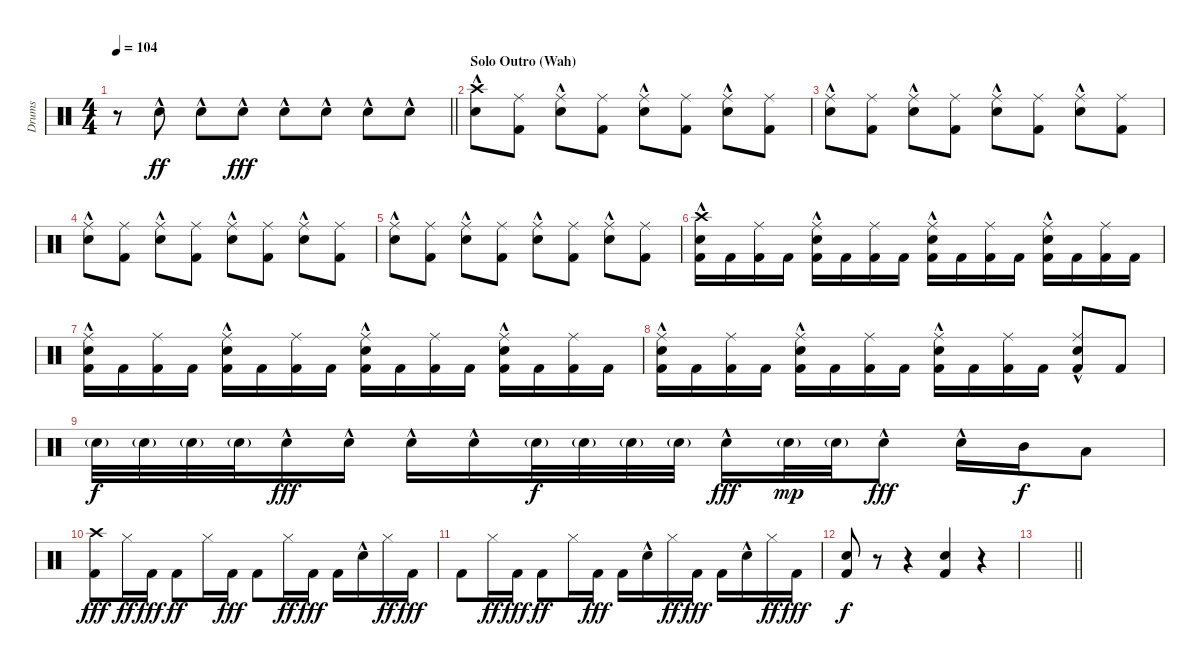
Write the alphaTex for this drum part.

\track ("Drums" "Drums") {instrument percussion}
\staff {score}
\articulation defaults
\ts (4 4)
\tempo 104
\clef neutral
\barLineRight lightlight
\ks c
r.8{dy fff} "Electric Snare (hit)"{hac}.8{dy ff} "Electric Snare (hit)"{hac}.8 "Electric Snare (hit)"{hac}.8{dy fff} "Electric Snare (hit)"{hac}.8 "Electric Snare (hit)"{hac}.8 "Electric Snare (hit)"{hac}.8 "Electric Snare (hit)"{hac}.8 |
\section ("" "Solo Outro (Wah)")
("Crash high (hit)" "Electric Snare (hit)"{hac}).8 ("Ride (middle)" "Kick (hit) 2").8 ("Ride (middle)" "Electric Snare (hit)"{hac}).8 ("Ride (middle)" "Kick (hit) 2").8 ("Ride (middle)" "Electric Snare (hit)"{hac}).8 ("Ride (middle)" "Kick (hit) 2").8 ("Ride (middle)" "Electric Snare (hit)"{hac}).8 ("Ride (middle)" "Kick (hit) 2").8 |
("Ride (middle)" "Electric Snare (hit)"{hac}).8 ("Ride (middle)" "Kick (hit) 2").8 ("Ride (middle)" "Electric Snare (hit)"{hac}).8 ("Ride (middle)" "Kick (hit) 2").8 ("Ride (middle)" "Electric Snare (hit)"{hac}).8 ("Ride (middle)" "Kick (hit) 2").8 ("Ride (middle)" "Electric Snare (hit)"{hac}).8 ("Ride (middle)" "Kick (hit) 2").8 |
("Ride (middle)" "Electric Snare (hit)"{hac}).8 ("Ride (middle)" "Kick (hit) 2").8 ("Ride (middle)" "Electric Snare (hit)"{hac}).8 ("Ride (middle)" "Kick (hit) 2").8 ("Ride (middle)" "Electric Snare (hit)"{hac}).8 ("Ride (middle)" "Kick (hit) 2").8 ("Ride (middle)" "Electric Snare (hit)"{hac}).8 ("Ride (middle)" "Kick (hit) 2").8 |
("Ride (middle)" "Electric Snare (hit)"{hac}).8 ("Ride (middle)" "Kick (hit) 2").8 ("Ride (middle)" "Electric Snare (hit)"{hac}).8 ("Ride (middle)" "Kick (hit) 2").8 ("Ride (middle)" "Electric Snare (hit)"{hac}).8 ("Ride (middle)" "Kick (hit) 2").8 ("Ride (middle)" "Electric Snare (hit)"{hac}).8 ("Ride (middle)" "Kick (hit) 2").8 |
("Crash high (hit)" "Electric Snare (hit)"{hac} "Kick (hit) 2").16 "Kick (hit) 2".16 ("Ride (middle)" "Kick (hit) 2").16 "Kick (hit) 2".16 ("Ride (middle)" "Electric Snare (hit)"{hac} "Kick (hit) 2").16 "Kick (hit) 2".16 ("Ride (middle)" "Kick (hit) 2").16 "Kick (hit) 2".16 ("Ride (middle)" "Electric Snare (hit)"{hac} "Kick (hit) 2").16 "Kick (hit) 2".16 ("Ride (middle)" "Kick (hit) 2").16 "Kick (hit) 2".16 ("Ride (middle)" "Electric Snare (hit)"{hac} "Kick (hit) 2").16 "Kick (hit) 2".16 ("Ride (middle)" "Kick (hit) 2").16 "Kick (hit) 2".16 |
("Ride (middle)" "Electric Snare (hit)"{hac} "Kick (hit) 2").16 "Kick (hit) 2".16 ("Ride (middle)" "Kick (hit) 2").16 "Kick (hit) 2".16 ("Ride (middle)" "Electric Snare (hit)"{hac} "Kick (hit) 2").16 "Kick (hit) 2".16 ("Ride (middle)" "Kick (hit) 2").16 "Kick (hit) 2".16 ("Ride (middle)" "Electric Snare (hit)"{hac} "Kick (hit) 2").16 "Kick (hit) 2".16 ("Ride (middle)" "Kick (hit) 2").16 "Kick (hit) 2".16 ("Ride (middle)" "Electric Snare (hit)"{hac} "Kick (hit) 2").16 "Kick (hit) 2".16 ("Ride (middle)" "Kick (hit) 2").16 "Kick (hit) 2".16 |
("Ride (middle)" "Electric Snare (hit)"{hac} "Kick (hit) 2").16 "Kick (hit) 2".16 ("Ride (middle)" "Kick (hit) 2").16 "Kick (hit) 2".16 ("Ride (middle)" "Electric Snare (hit)"{hac} "Kick (hit) 2").16 "Kick (hit) 2".16 ("Ride (middle)" "Kick (hit) 2").16 "Kick (hit) 2".16 ("Ride (middle)" "Electric Snare (hit)"{hac} "Kick (hit) 2").16 "Kick (hit) 2".16 ("Ride (middle)" "Kick (hit) 2").16 "Kick (hit) 2".16 ("Ride (middle)" "Electric Snare (hit)"{hac} "Kick (hit) 2").8 "Kick (hit) 2".8 |
"Electric Snare (hit)"{g}.32{dy f} "Electric Snare (hit)"{g}.32 "Electric Snare (hit)"{g}.32 "Electric Snare (hit)"{g}.32 "Electric Snare (hit)"{hac}.16{dy fff} "Electric Snare (hit)"{hac}.16 "Electric Snare (hit)"{hac}.16 "Electric Snare (hit)"{hac}.16 "Electric Snare (hit)"{g}.32{dy f} "Electric Snare (hit)"{g}.32 "Electric Snare (hit)"{g}.32 "Electric Snare (hit)"{g}.32 "Electric Snare (hit)"{hac}.16{dy fff} "Electric Snare (hit)"{g}.32{dy mp} "Electric Snare (hit)"{g}.32 "Electric Snare (hit)"{hac}.8{dy fff} "Electric Snare (hit)"{hac}.16 "Mid Tom (hit)".16{dy f} "Low Tom (hit)".8 |
("Crash high (hit)" "Kick (hit) 2").8{dy fff} "Hi-Hat (closed)".16{dy ff} "Kick (hit) 2".16{dy fff} "Kick (hit) 2".8{dy ff} "Hi-Hat (closed)".16 "Kick (hit) 2".16{dy fff} "Kick (hit) 2".8 "Hi-Hat (closed)".16{dy ff} "Kick (hit) 2".16{dy fff} "Kick (hit) 2".16 "Electric Snare (hit)"{hac}.16 "Hi-Hat (closed)".16{dy ff} "Kick (hit) 2".16{dy fff} |
"Kick (hit) 2".8 "Hi-Hat (closed)".16{dy ff} "Kick (hit) 2".16{dy fff} "Kick (hit) 2".8{dy ff} "Hi-Hat (closed)".16 "Kick (hit) 2".16{dy fff} "Kick (hit) 2".16 "Electric Snare (hit)"{hac}.16 "Hi-Hat (closed)".16{dy ff} "Kick (hit) 2".16{dy fff} "Kick (hit) 2".16 "Electric Snare (hit)"{hac}.16 "Hi-Hat (closed)".16{dy ff} "Kick (hit) 2".16{dy fff} |
("Electric Snare (hit)" "Kick (hit) 2").8{dy f} r.8 r.4 ("Electric Snare (hit)" "Kick (hit) 2").4 r.4 |
\barLineRight lightlight
